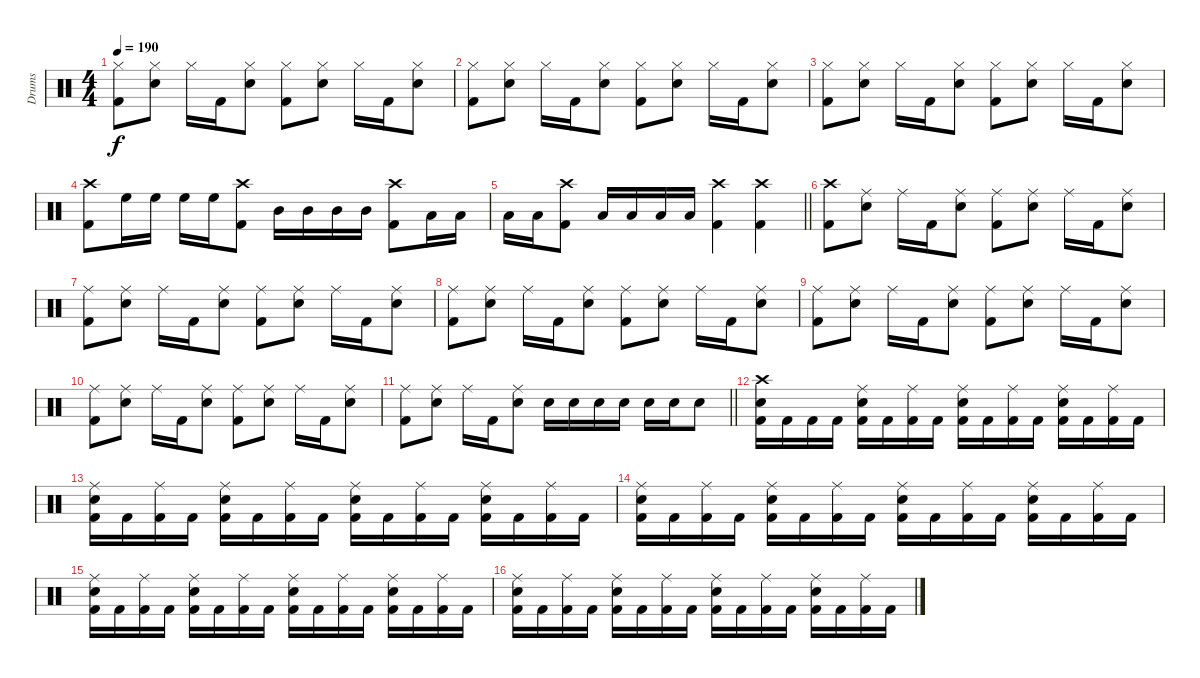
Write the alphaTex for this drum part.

\track ("Drums" "Drums") {instrument percussion}
\staff {score}
\articulation defaults
\ts (4 4)
\tempo 190
\clef neutral
\ks c
("Hi-Hat (closed)" "Kick (hit) 2").8{dy f} ("Hi-Hat (closed)" "Snare (hit) 2").8 "Hi-Hat (closed)".16 "Kick (hit) 2".16 ("Hi-Hat (closed)" "Snare (hit) 2").8 ("Hi-Hat (closed)" "Kick (hit) 2").8 ("Hi-Hat (closed)" "Snare (hit) 2").8 "Hi-Hat (closed)".16 "Kick (hit) 2".16 ("Hi-Hat (closed)" "Snare (hit) 2").8 |
("Hi-Hat (closed)" "Kick (hit) 2").8 ("Hi-Hat (closed)" "Snare (hit) 2").8 "Hi-Hat (closed)".16 "Kick (hit) 2".16 ("Hi-Hat (closed)" "Snare (hit) 2").8 ("Hi-Hat (closed)" "Kick (hit) 2").8 ("Hi-Hat (closed)" "Snare (hit) 2").8 "Hi-Hat (closed)".16 "Kick (hit) 2".16 ("Hi-Hat (closed)" "Snare (hit) 2").8 |
("Hi-Hat (closed)" "Kick (hit) 2").8 ("Hi-Hat (closed)" "Snare (hit) 2").8 "Hi-Hat (closed)".16 "Kick (hit) 2".16 ("Hi-Hat (closed)" "Snare (hit) 2").8 ("Hi-Hat (closed)" "Kick (hit) 2").8 ("Hi-Hat (closed)" "Snare (hit) 2").8 "Hi-Hat (closed)".16 "Kick (hit) 2".16 ("Hi-Hat (closed)" "Snare (hit) 2").8 |
("Crash high (hit)" "Kick (hit) 2").8 "High Floor Tom (hit)".16 "High Floor Tom (hit)".16 "High Floor Tom (hit)".16 "High Floor Tom (hit)".16 ("Crash high (hit)" "Kick (hit) 2").8 "Mid Tom (hit)".16 "Mid Tom (hit)".16 "Mid Tom (hit)".16 "Mid Tom (hit)".16 ("Crash high (hit)" "Kick (hit) 2").8 "Low Tom (hit)".16 "Low Tom (hit)".16 |
\barLineRight lightlight "Low Tom (hit)".16 "Low Tom (hit)".16
("Crash high (hit)" "Kick (hit) 2").8 "Low Floor Tom (hit)".16 "Low Floor Tom (hit)".16 "Low Floor Tom (hit)".16 "Low Floor Tom (hit)".16 ("Crash high (hit)" "Kick (hit) 2").4 ("Crash high (hit)" "Kick (hit) 2").4 |
("Crash high (hit)" "Kick (hit) 2").8 ("Ride (middle)" "Snare (hit) 2").8 "Ride (middle)".16 "Kick (hit) 2".16 ("Ride (middle)" "Snare (hit) 2").8 ("Ride (middle)" "Kick (hit) 2").8 ("Ride (middle)" "Snare (hit) 2").8 "Ride (middle)".16 "Kick (hit) 2".16 ("Ride (middle)" "Snare (hit) 2").8 |
("Ride (middle)" "Kick (hit) 2").8 ("Ride (middle)" "Snare (hit) 2").8 "Ride (middle)".16 "Kick (hit) 2".16 ("Ride (middle)" "Snare (hit) 2").8 ("Ride (middle)" "Kick (hit) 2").8 ("Ride (middle)" "Snare (hit) 2").8 "Ride (middle)".16 "Kick (hit) 2".16 ("Ride (middle)" "Snare (hit) 2").8 |
("Ride (middle)" "Kick (hit) 2").8 ("Ride (middle)" "Snare (hit) 2").8 "Ride (middle)".16 "Kick (hit) 2".16 ("Ride (middle)" "Snare (hit) 2").8 ("Ride (middle)" "Kick (hit) 2").8 ("Ride (middle)" "Snare (hit) 2").8 "Ride (middle)".16 "Kick (hit) 2".16 ("Ride (middle)" "Snare (hit) 2").8 |
("Ride (middle)" "Kick (hit) 2").8 ("Ride (middle)" "Snare (hit) 2").8 "Ride (middle)".16 "Kick (hit) 2".16 ("Ride (middle)" "Snare (hit) 2").8 ("Ride (middle)" "Kick (hit) 2").8 ("Ride (middle)" "Snare (hit) 2").8 "Ride (middle)".16 "Kick (hit) 2".16 ("Ride (middle)" "Snare (hit) 2").8 |
("Ride (middle)" "Kick (hit) 2").8 ("Ride (middle)" "Snare (hit) 2").8 "Ride (middle)".16 "Kick (hit) 2".16 ("Ride (middle)" "Snare (hit) 2").8 ("Ride (middle)" "Kick (hit) 2").8 ("Ride (middle)" "Snare (hit) 2").8 "Ride (middle)".16 "Kick (hit) 2".16 ("Ride (middle)" "Snare (hit) 2").8 |
\barLineRight lightlight
("Ride (middle)" "Kick (hit) 2").8 ("Ride (middle)" "Snare (hit) 2").8 "Ride (middle)".16 "Kick (hit) 2".16 ("Ride (middle)" "Snare (hit) 2").8 "Snare (hit) 2".16 "Snare (hit) 2".16 "Snare (hit) 2".16 "Snare (hit) 2".16 "Snare (hit) 2".16 "Snare (hit) 2".16 "Snare (hit) 2".8 |
("Crash high (hit)" "Snare (hit) 2" "Kick (hit) 2").16 "Kick (hit) 2".16 "Kick (hit) 2".16 "Kick (hit) 2".16 ("Ride (middle)" "Snare (hit) 2" "Kick (hit) 2").16 "Kick (hit) 2".16 ("Ride (middle)" "Kick (hit) 2").16 "Kick (hit) 2".16 ("Ride (middle)" "Snare (hit) 2" "Kick (hit) 2").16 "Kick (hit) 2".16 ("Ride (middle)" "Kick (hit) 2").16 "Kick (hit) 2".16 ("Ride (middle)" "Snare (hit) 2" "Kick (hit) 2").16 "Kick (hit) 2".16 ("Ride (middle)" "Kick (hit) 2").16 "Kick (hit) 2".16 |
("Ride (middle)" "Snare (hit) 2" "Kick (hit) 2").16 "Kick (hit) 2".16 ("Ride (middle)" "Kick (hit) 2").16 "Kick (hit) 2".16 ("Ride (middle)" "Snare (hit) 2" "Kick (hit) 2").16 "Kick (hit) 2".16 ("Ride (middle)" "Kick (hit) 2").16 "Kick (hit) 2".16 ("Ride (middle)" "Snare (hit) 2" "Kick (hit) 2").16 "Kick (hit) 2".16 ("Ride (middle)" "Kick (hit) 2").16 "Kick (hit) 2".16 ("Ride (middle)" "Snare (hit) 2" "Kick (hit) 2").16 "Kick (hit) 2".16 ("Ride (middle)" "Kick (hit) 2").16 "Kick (hit) 2".16 |
("Ride (middle)" "Snare (hit) 2" "Kick (hit) 2").16 "Kick (hit) 2".16 ("Ride (middle)" "Kick (hit) 2").16 "Kick (hit) 2".16 ("Ride (middle)" "Snare (hit) 2" "Kick (hit) 2").16 "Kick (hit) 2".16 ("Ride (middle)" "Kick (hit) 2").16 "Kick (hit) 2".16 ("Ride (middle)" "Snare (hit) 2" "Kick (hit) 2").16 "Kick (hit) 2".16 ("Ride (middle)" "Kick (hit) 2").16 "Kick (hit) 2".16 ("Ride (middle)" "Snare (hit) 2" "Kick (hit) 2").16 "Kick (hit) 2".16 ("Ride (middle)" "Kick (hit) 2").16 "Kick (hit) 2".16 |
("Ride (middle)" "Snare (hit) 2" "Kick (hit) 2").16 "Kick (hit) 2".16 ("Ride (middle)" "Kick (hit) 2").16 "Kick (hit) 2".16 ("Ride (middle)" "Snare (hit) 2" "Kick (hit) 2").16 "Kick (hit) 2".16 ("Ride (middle)" "Kick (hit) 2").16 "Kick (hit) 2".16 ("Ride (middle)" "Snare (hit) 2" "Kick (hit) 2").16 "Kick (hit) 2".16 ("Ride (middle)" "Kick (hit) 2").16 "Kick (hit) 2".16 ("Ride (middle)" "Snare (hit) 2" "Kick (hit) 2").16 "Kick (hit) 2".16 ("Ride (middle)" "Kick (hit) 2").16 "Kick (hit) 2".16 |
("Ride (middle)" "Snare (hit) 2" "Kick (hit) 2").16 "Kick (hit) 2".16 ("Ride (middle)" "Kick (hit) 2").16 "Kick (hit) 2".16 ("Ride (middle)" "Snare (hit) 2" "Kick (hit) 2").16 "Kick (hit) 2".16 ("Ride (middle)" "Kick (hit) 2").16 "Kick (hit) 2".16 ("Ride (middle)" "Snare (hit) 2" "Kick (hit) 2").16 "Kick (hit) 2".16 ("Ride (middle)" "Kick (hit) 2").16 "Kick (hit) 2".16 ("Ride (middle)" "Snare (hit) 2" "Kick (hit) 2").16 "Kick (hit) 2".16 ("Ride (middle)" "Kick (hit) 2").16 "Kick (hit) 2".16
